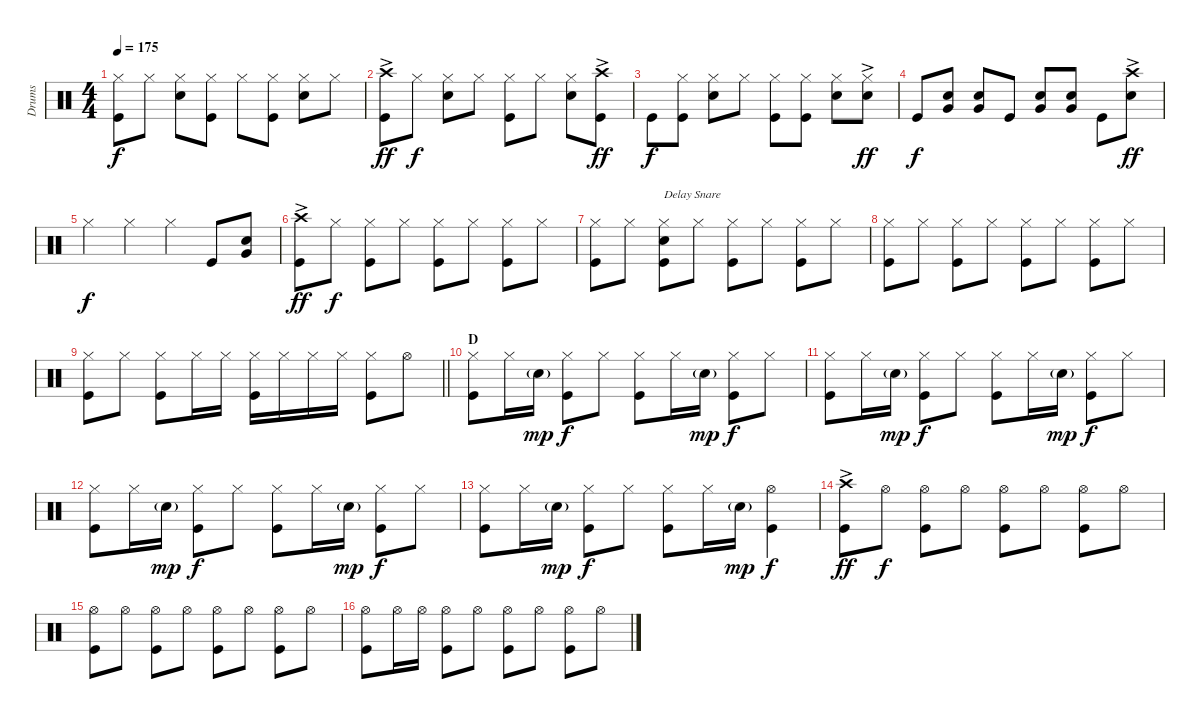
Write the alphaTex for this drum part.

\track ("Drums" "Drums") {instrument percussion}
\staff {score}
\articulation defaults
\ts (4 4)
\tempo 175
\clef neutral
\ks c
("Hi-Hat (closed)" "Kick (hit)").8{dy f} "Hi-Hat (closed)".8 ("Hi-Hat (closed)" "Snare (hit) 2").8 ("Hi-Hat (closed)" "Kick (hit)").8 "Hi-Hat (closed)".8 ("Hi-Hat (closed)" "Kick (hit)").8 ("Hi-Hat (closed)" "Snare (hit) 2").8 "Hi-Hat (closed)".8 |
("Crash high (hit)"{ac} "Kick (hit)").8{dy ff} "Hi-Hat (closed)".8{dy f} ("Hi-Hat (closed)" "Snare (hit) 2").8 "Hi-Hat (closed)".8 ("Hi-Hat (closed)" "Kick (hit)").8 "Hi-Hat (closed)".8 ("Hi-Hat (closed)" "Snare (hit) 2").8 ("Crash high (hit)"{ac} "Kick (hit)").8{dy ff} |
"Kick (hit)".8{dy f} ("Kick (hit)" "Hi-Hat (closed)").8 ("Hi-Hat (closed)" "Snare (hit) 2").8 "Hi-Hat (closed)".8 ("Hi-Hat (closed)" "Kick (hit)").8 ("Kick (hit)" "Hi-Hat (closed)").8 ("Hi-Hat (closed)" "Snare (hit) 2").8 ("Snare (hit) 2" "Hi-Hat (closed)"{ac}).8{dy ff} |
"Kick (hit)".8{dy f} ("Snare (hit) 2" "Very Low Tom (hit)").8 ("Very Low Tom (hit)" "Snare (hit) 2").8 "Kick (hit)".8 ("Snare (hit) 2" "Very Low Tom (hit)").8 ("Snare (hit) 2" "Very Low Tom (hit)").8 "Kick (hit)".8 ("Crash high (hit)"{ac} "Snare (hit) 2").8{dy ff} |
"Hi-Hat (closed)".4{dy f} "Hi-Hat (closed)".4 "Hi-Hat (closed)".4 "Kick (hit)".8 ("Snare (hit) 2" "Very Low Tom (hit)").8 |
("Crash high (hit)"{ac} "Kick (hit)").8{dy ff} "Hi-Hat (closed)".8{dy f} ("Hi-Hat (closed)" "Kick (hit)").8 "Hi-Hat (closed)".8 ("Hi-Hat (closed)" "Kick (hit)").8 "Hi-Hat (closed)".8 ("Hi-Hat (closed)" "Kick (hit)").8 "Hi-Hat (closed)".8 |
("Kick (hit)" "Hi-Hat (closed)").8 "Hi-Hat (closed)".8 ("Hi-Hat (closed)" "Kick (hit)" "Snare (hit) 2").8{txt "Delay Snare"} "Hi-Hat (closed)".8 ("Kick (hit)" "Hi-Hat (closed)").8 "Hi-Hat (closed)".8 ("Hi-Hat (closed)" "Kick (hit)").8 "Hi-Hat (closed)".8 |
("Hi-Hat (closed)" "Kick (hit)").8 "Hi-Hat (closed)".8 ("Hi-Hat (closed)" "Kick (hit)").8 "Hi-Hat (closed)".8 ("Hi-Hat (closed)" "Kick (hit)").8 "Hi-Hat (closed)".8 ("Hi-Hat (closed)" "Kick (hit)").8 "Hi-Hat (closed)".8 |
\barLineRight lightlight
("Hi-Hat (closed)" "Kick (hit)").8 "Hi-Hat (closed)".8 ("Hi-Hat (closed)" "Kick (hit)").8 "Hi-Hat (closed)".16 "Hi-Hat (closed)".16 ("Hi-Hat (closed)" "Kick (hit)").16 "Hi-Hat (closed)".16 "Hi-Hat (closed)".16 "Hi-Hat (closed)".16 ("Hi-Hat (closed)" "Kick (hit)").8 "Hi-Hat (open)".8 |
\section ("" "D")
("Hi-Hat (closed)" "Kick (hit)").8 "Hi-Hat (closed)".16 "Snare (hit) 2"{g}.16{dy mp} ("Hi-Hat (closed)" "Kick (hit)").8{dy f} "Hi-Hat (closed)".8 ("Hi-Hat (closed)" "Kick (hit)").8 "Hi-Hat (closed)".16 "Snare (hit) 2"{g}.16{dy mp} ("Hi-Hat (closed)" "Kick (hit)").8{dy f} "Hi-Hat (closed)".8 |
("Hi-Hat (closed)" "Kick (hit)").8 "Hi-Hat (closed)".16 "Snare (hit) 2"{g}.16{dy mp} ("Hi-Hat (closed)" "Kick (hit)").8{dy f} "Hi-Hat (closed)".8 ("Hi-Hat (closed)" "Kick (hit)").8 "Hi-Hat (closed)".16 "Snare (hit) 2"{g}.16{dy mp} ("Hi-Hat (closed)" "Kick (hit)").8{dy f} "Hi-Hat (closed)".8 |
("Hi-Hat (closed)" "Kick (hit)").8 "Hi-Hat (closed)".16 "Snare (hit) 2"{g}.16{dy mp} ("Hi-Hat (closed)" "Kick (hit)").8{dy f} "Hi-Hat (closed)".8 ("Hi-Hat (closed)" "Kick (hit)").8 "Hi-Hat (closed)".16 "Snare (hit) 2"{g}.16{dy mp} ("Hi-Hat (closed)" "Kick (hit)").8{dy f} "Hi-Hat (closed)".8 |
("Hi-Hat (closed)" "Kick (hit)").8 "Hi-Hat (closed)".16 "Snare (hit) 2"{g}.16{dy mp} ("Hi-Hat (closed)" "Kick (hit)").8{dy f} "Hi-Hat (closed)".8 ("Hi-Hat (closed)" "Kick (hit)").8 "Hi-Hat (closed)".16 "Snare (hit) 2"{g}.16{dy mp} ("Hi-Hat (open)" "Kick (hit)").4{dy f} |
("Crash high (hit)"{ac} "Kick (hit)").8{dy ff} "Hi-Hat (open)".8{dy f} ("Hi-Hat (open)" "Kick (hit)").8 "Hi-Hat (open)".8 ("Hi-Hat (open)" "Kick (hit)").8 "Hi-Hat (open)".8 ("Hi-Hat (open)" "Kick (hit)").8 "Hi-Hat (open)".8 |
("Hi-Hat (open)" "Kick (hit)").8 "Hi-Hat (open)".8 ("Hi-Hat (open)" "Kick (hit)").8 "Hi-Hat (open)".8 ("Hi-Hat (open)" "Kick (hit)").8 "Hi-Hat (open)".8 ("Hi-Hat (open)" "Kick (hit)").8 "Hi-Hat (open)".8 |
("Hi-Hat (open)" "Kick (hit)").8 "Hi-Hat (open)".16 "Hi-Hat (open)".16 ("Hi-Hat (open)" "Kick (hit)").8 "Hi-Hat (open)".8 ("Hi-Hat (open)" "Kick (hit)").8 "Hi-Hat (open)".8 ("Hi-Hat (open)" "Kick (hit)").8 "Hi-Hat (open)".8
